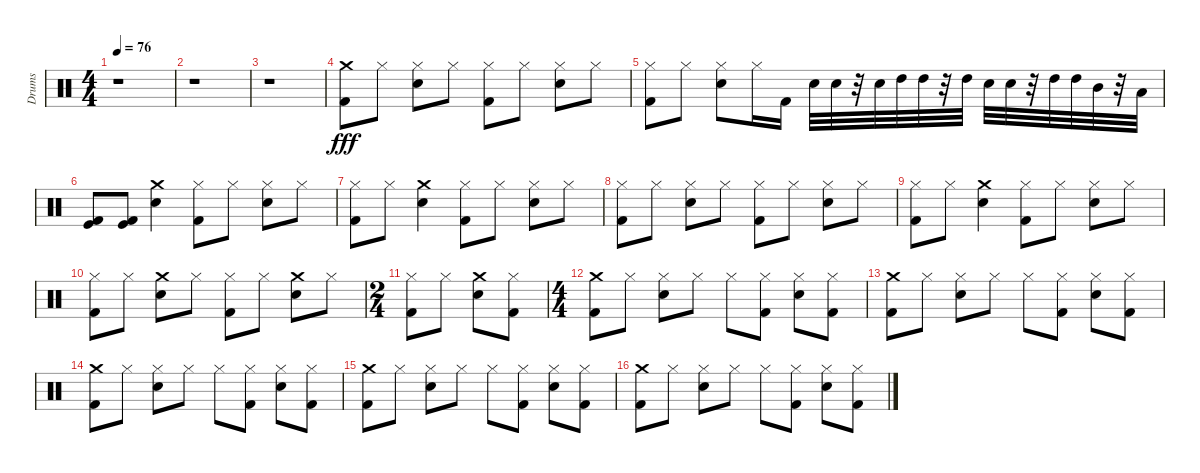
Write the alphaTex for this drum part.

\track ("Drums" "Drums") {instrument percussion}
\staff {score}
\articulation defaults
\ts (4 4)
\tempo 76
\clef neutral
\ks c
r.1{dy fff} |
r.1 |
r.1 |
("Kick (hit) 2" "Crash medium (hit)").8 "Hi-Hat (closed)".8 ("Hi-Hat (closed)" "Snare (hit) 2").8 "Hi-Hat (closed)".8 ("Hi-Hat (closed)" "Kick (hit) 2").8 "Hi-Hat (closed)".8 ("Hi-Hat (closed)" "Snare (hit) 2").8 "Hi-Hat (closed)".8 |
("Hi-Hat (closed)" "Kick (hit) 2").8 "Hi-Hat (closed)".8 ("Hi-Hat (closed)" "Snare (hit) 2").8 "Hi-Hat (closed)".16 "Kick (hit) 2".16 "Snare (hit) 2".32 "Snare (hit) 2".32 r.32 "Snare (hit) 2".32 "High Tom (hit)".32 "High Tom (hit)".32 r.32 "High Tom (hit)".32 "Snare (hit) 2".32 "Snare (hit) 2".32 r.32 "High Tom (hit)".32 "High Tom (hit)".32 "Mid Tom (hit)".32 r.32 "Low Tom (hit)".32 |
("Kick (hit) 2" "Kick (hit)").8 ("Kick (hit) 2" "Kick (hit)").8 ("Snare (hit) 2" "Crash medium (hit)").4 ("Hi-Hat (closed)" "Kick (hit) 2").8 "Hi-Hat (closed)".8 ("Hi-Hat (closed)" "Snare (hit) 2").8 "Hi-Hat (closed)".8 |
("Hi-Hat (closed)" "Kick (hit) 2").8 "Hi-Hat (closed)".8 ("Snare (hit) 2" "Crash medium (hit)").4 ("Hi-Hat (closed)" "Kick (hit) 2").8 "Hi-Hat (closed)".8 ("Hi-Hat (closed)" "Snare (hit) 2").8 "Hi-Hat (closed)".8 |
("Hi-Hat (closed)" "Kick (hit) 2").8 "Hi-Hat (closed)".8 ("Hi-Hat (closed)" "Snare (hit) 2").8 "Hi-Hat (closed)".8 ("Hi-Hat (closed)" "Kick (hit) 2").8 "Hi-Hat (closed)".8 ("Hi-Hat (closed)" "Snare (hit) 2").8 "Hi-Hat (closed)".8 |
("Hi-Hat (closed)" "Kick (hit) 2").8 "Hi-Hat (closed)".8 ("Snare (hit) 2" "Crash medium (hit)").4 ("Hi-Hat (closed)" "Kick (hit) 2").8 "Hi-Hat (closed)".8 ("Hi-Hat (closed)" "Snare (hit) 2").8 "Hi-Hat (closed)".8 |
("Hi-Hat (closed)" "Kick (hit) 2").8 "Hi-Hat (closed)".8 ("Snare (hit) 2" "Crash medium (hit)").8 "Hi-Hat (closed)".8 ("Hi-Hat (closed)" "Kick (hit) 2").8 "Hi-Hat (closed)".8 ("Snare (hit) 2" "Crash medium (hit)").8 "Hi-Hat (closed)".8 |
\ts (2 4)
("Hi-Hat (closed)" "Kick (hit) 2").8 "Hi-Hat (closed)".8 ("Snare (hit) 2" "Crash medium (hit)").8 ("Hi-Hat (closed)" "Kick (hit) 2").8 |
\ts (4 4)
("Kick (hit) 2" "Crash medium (hit)").8 "Hi-Hat (closed)".8 ("Hi-Hat (closed)" "Snare (hit) 2").8 "Hi-Hat (closed)".8 "Hi-Hat (closed)".8 ("Hi-Hat (closed)" "Kick (hit) 2").8 ("Hi-Hat (closed)" "Snare (hit) 2").8 ("Hi-Hat (closed)" "Kick (hit) 2").8 |
("Crash medium (hit)" "Kick (hit) 2").8 "Hi-Hat (closed)".8 ("Hi-Hat (closed)" "Snare (hit) 2").8 "Hi-Hat (closed)".8 "Hi-Hat (closed)".8 ("Hi-Hat (closed)" "Kick (hit) 2").8 ("Hi-Hat (closed)" "Snare (hit) 2").8 ("Hi-Hat (closed)" "Kick (hit) 2").8 |
("Kick (hit) 2" "Crash medium (hit)").8 "Hi-Hat (closed)".8 ("Hi-Hat (closed)" "Snare (hit) 2").8 "Hi-Hat (closed)".8 "Hi-Hat (closed)".8 ("Hi-Hat (closed)" "Kick (hit) 2").8 ("Hi-Hat (closed)" "Snare (hit) 2").8 ("Hi-Hat (closed)" "Kick (hit) 2").8 |
("Kick (hit) 2" "Crash medium (hit)").8 "Hi-Hat (closed)".8 ("Hi-Hat (closed)" "Snare (hit) 2").8 "Hi-Hat (closed)".8 "Hi-Hat (closed)".8 ("Hi-Hat (closed)" "Kick (hit) 2").8 ("Hi-Hat (closed)" "Snare (hit) 2").8 ("Hi-Hat (closed)" "Kick (hit) 2").8 |
("Kick (hit) 2" "Crash medium (hit)").8 "Hi-Hat (closed)".8 ("Hi-Hat (closed)" "Snare (hit) 2").8 "Hi-Hat (closed)".8 "Hi-Hat (closed)".8 ("Hi-Hat (closed)" "Kick (hit) 2").8 ("Hi-Hat (closed)" "Snare (hit) 2").8 ("Hi-Hat (closed)" "Kick (hit) 2").8
